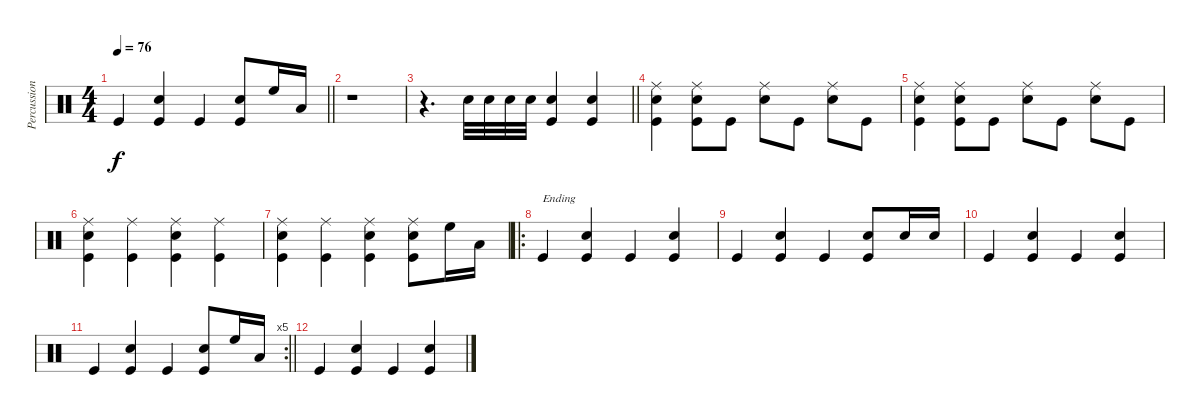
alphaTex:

\track ("Percussion" "Percussion") {instrument percussion}
\staff {score}
\articulation defaults
\ts (4 4)
\tempo 76
\clef neutral
\barLineRight lightlight
\ks c "Kick (hit)".4{dy f}
("Snare (hit) 2" "Kick (hit)").4 "Kick (hit)".4 ("Snare (hit) 2" "Kick (hit)").8 "High Floor Tom (hit)".16 "Low Tom (hit)".16 |
r.1 |
\barLineRight lightlight
r.4{d} "Snare (hit) 2".32 "Snare (hit) 2".32 "Snare (hit) 2".32 "Snare (hit) 2".32 ("Snare (hit) 2" "Kick (hit)").4 ("Snare (hit) 2" "Kick (hit)").4 |
("Ride (middle)" "Snare (hit) 2" "Kick (hit)").4 ("Ride (middle)" "Snare (hit) 2" "Kick (hit)").8 "Kick (hit)".8 ("Ride (middle)" "Snare (hit) 2").8 "Kick (hit)".8 ("Ride (middle)" "Snare (hit) 2").8 "Kick (hit)".8 |
("Ride (middle)" "Snare (hit) 2" "Kick (hit)").4 ("Ride (middle)" "Snare (hit) 2" "Kick (hit)").8 "Kick (hit)".8 ("Ride (middle)" "Snare (hit) 2").8 "Kick (hit)".8 ("Ride (middle)" "Snare (hit) 2").8 "Kick (hit)".8 |
("Ride (middle)" "Snare (hit) 2" "Kick (hit)").4 ("Ride (middle)" "Kick (hit)").4 ("Ride (middle)" "Snare (hit) 2" "Kick (hit)").4 ("Ride (middle)" "Kick (hit)").4 |
("Ride (middle)" "Snare (hit) 2" "Kick (hit)").4 ("Ride (middle)" "Kick (hit)").4 ("Ride (middle)" "Snare (hit) 2" "Kick (hit)").4 ("Ride (middle)" "Snare (hit) 2" "Kick (hit)").8 "High Floor Tom (hit)".16 "Low Tom (hit)".16 |
\ro "Kick (hit)".4{txt "Ending"}
("Snare (hit) 2" "Kick (hit)").4 "Kick (hit)".4 ("Snare (hit) 2" "Kick (hit)").4 |
"Kick (hit)".4 ("Snare (hit) 2" "Kick (hit)").4 "Kick (hit)".4 ("Snare (hit) 2" "Kick (hit)").8 "Snare (hit) 2".16 "Snare (hit) 2".16 |
"Kick (hit)".4 ("Snare (hit) 2" "Kick (hit)").4 "Kick (hit)".4 ("Snare (hit) 2" "Kick (hit)").4 |
\rc 5
\barLineRight lightlight "Kick (hit)".4
("Snare (hit) 2" "Kick (hit)").4 "Kick (hit)".4 ("Snare (hit) 2" "Kick (hit)").8 "High Floor Tom (hit)".16 "Low Tom (hit)".16 |
"Kick (hit)".4 ("Snare (hit) 2" "Kick (hit)").4 "Kick (hit)".4 ("Snare (hit) 2" "Kick (hit)").4
